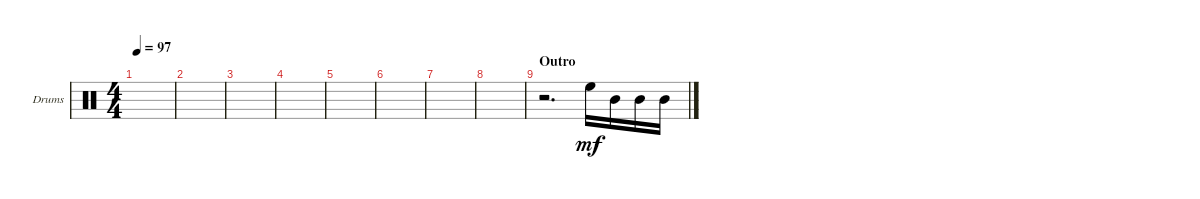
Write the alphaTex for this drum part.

\bracketExtendMode groupsimilarinstruments
\firstSystemTrackNameOrientation horizontal
\otherSystemsTrackNameOrientation horizontal
\track ("Tom" "Drums") {instrument percussion}
\staff {score}
\articulation defaults
\ts (4 4)
\tempo 97
\clef neutral
\ks c
|
|
|
|
|
|
|
|
\section ("" "Outro")
\scale
0.333333 r.2{d} "High Floor Tom (hit)".16{dy mf} "Mid Tom (hit)".16 "Mid Tom (hit)".16 "Mid Tom (hit)".16
